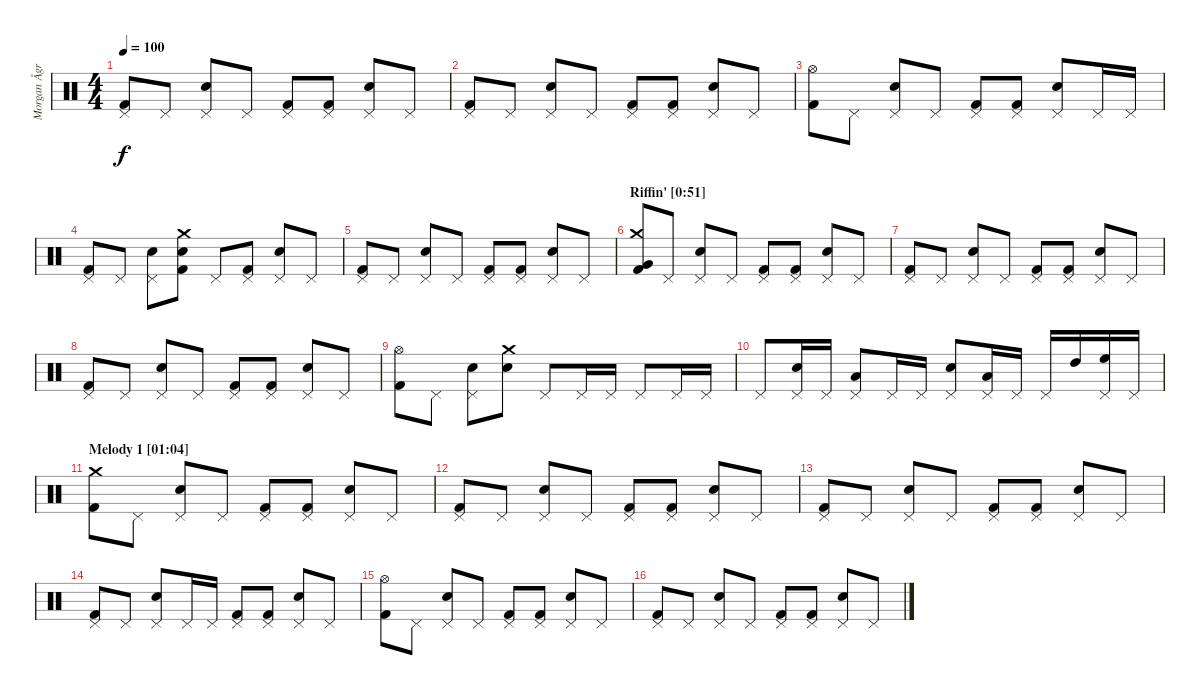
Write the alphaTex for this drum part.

\track ("Morgan Ågren" "Morgan Ågr") {instrument percussion}
\staff {score}
\articulation defaults
\ts (4 4)
\tempo 100
\clef neutral
\ks c
("Pedal Hi-Hat (hit)" "Kick (hit) 2").8{dy f} "Pedal Hi-Hat (hit)".8 ("Pedal Hi-Hat (hit)" "Electric Snare (hit)").8 "Pedal Hi-Hat (hit)".8 ("Pedal Hi-Hat (hit)" "Kick (hit) 2").8 ("Pedal Hi-Hat (hit)" "Kick (hit) 2").8 ("Pedal Hi-Hat (hit)" "Electric Snare (hit)").8 "Pedal Hi-Hat (hit)".8 |
("Pedal Hi-Hat (hit)" "Kick (hit) 2").8 "Pedal Hi-Hat (hit)".8 ("Pedal Hi-Hat (hit)" "Electric Snare (hit)").8 "Pedal Hi-Hat (hit)".8 ("Pedal Hi-Hat (hit)" "Kick (hit) 2").8 ("Pedal Hi-Hat (hit)" "Kick (hit) 2").8 ("Pedal Hi-Hat (hit)" "Electric Snare (hit)").8 "Pedal Hi-Hat (hit)".8 |
("Hi-Hat (open)" "Kick (hit) 2").8 "Pedal Hi-Hat (hit)".8 ("Pedal Hi-Hat (hit)" "Electric Snare (hit)").8 "Pedal Hi-Hat (hit)".8 ("Pedal Hi-Hat (hit)" "Kick (hit) 2").8 ("Pedal Hi-Hat (hit)" "Kick (hit) 2").8 ("Pedal Hi-Hat (hit)" "Electric Snare (hit)").8 "Pedal Hi-Hat (hit)".16 "Pedal Hi-Hat (hit)".16 |
("Pedal Hi-Hat (hit)" "Kick (hit) 2").8 "Pedal Hi-Hat (hit)".8 ("Pedal Hi-Hat (hit)" "Electric Snare (hit)").8 ("Crash medium (hit)" "Electric Snare (hit)" "Kick (hit) 2").8 "Pedal Hi-Hat (hit)".8 ("Pedal Hi-Hat (hit)" "Kick (hit) 2").8 ("Pedal Hi-Hat (hit)" "Electric Snare (hit)").8 "Pedal Hi-Hat (hit)".8 |
("Pedal Hi-Hat (hit)" "Kick (hit) 2").8 "Pedal Hi-Hat (hit)".8 ("Pedal Hi-Hat (hit)" "Electric Snare (hit)").8 "Pedal Hi-Hat (hit)".8 ("Pedal Hi-Hat (hit)" "Kick (hit) 2").8 ("Pedal Hi-Hat (hit)" "Kick (hit) 2").8 ("Pedal Hi-Hat (hit)" "Electric Snare (hit)").8 "Pedal Hi-Hat (hit)".8 |
\section ("" "Riffin' [0:51]")
("Crash medium (hit)" "Very Low Tom (hit)" "Kick (hit) 2").8 "Pedal Hi-Hat (hit)".8 ("Pedal Hi-Hat (hit)" "Electric Snare (hit)").8 "Pedal Hi-Hat (hit)".8 ("Pedal Hi-Hat (hit)" "Kick (hit) 2").8 ("Pedal Hi-Hat (hit)" "Kick (hit) 2").8 ("Pedal Hi-Hat (hit)" "Electric Snare (hit)").8 "Pedal Hi-Hat (hit)".8 |
("Pedal Hi-Hat (hit)" "Kick (hit) 2").8 "Pedal Hi-Hat (hit)".8 ("Pedal Hi-Hat (hit)" "Electric Snare (hit)").8 "Pedal Hi-Hat (hit)".8 ("Pedal Hi-Hat (hit)" "Kick (hit) 2").8 ("Pedal Hi-Hat (hit)" "Kick (hit) 2").8 ("Pedal Hi-Hat (hit)" "Electric Snare (hit)").8 "Pedal Hi-Hat (hit)".8 |
("Pedal Hi-Hat (hit)" "Kick (hit) 2").8 "Pedal Hi-Hat (hit)".8 ("Pedal Hi-Hat (hit)" "Electric Snare (hit)").8 "Pedal Hi-Hat (hit)".8 ("Pedal Hi-Hat (hit)" "Kick (hit) 2").8 ("Pedal Hi-Hat (hit)" "Kick (hit) 2").8 ("Pedal Hi-Hat (hit)" "Electric Snare (hit)").8 "Pedal Hi-Hat (hit)".8 |
("Hi-Hat (open)" "Kick (hit) 2").8 "Pedal Hi-Hat (hit)".8 ("Pedal Hi-Hat (hit)" "Electric Snare (hit)").8 ("Crash medium (hit)" "Electric Snare (hit)").8 "Pedal Hi-Hat (hit)".8 "Pedal Hi-Hat (hit)".16 "Pedal Hi-Hat (hit)".16 "Pedal Hi-Hat (hit)".8 "Pedal Hi-Hat (hit)".16 "Pedal Hi-Hat (hit)".16 |
"Pedal Hi-Hat (hit)".8 ("Pedal Hi-Hat (hit)" "Electric Snare (hit)").16 "Pedal Hi-Hat (hit)".16 ("Pedal Hi-Hat (hit)" "Low Tom (hit)").8 "Pedal Hi-Hat (hit)".16 "Pedal Hi-Hat (hit)".16 ("Pedal Hi-Hat (hit)" "Electric Snare (hit)").8 ("Pedal Hi-Hat (hit)" "Low Tom (hit)").16 "Pedal Hi-Hat (hit)".16 "Pedal Hi-Hat (hit)".16 "High Tom (hit)".16 ("Pedal Hi-Hat (hit)" "High Floor Tom (hit)").16 "Pedal Hi-Hat (hit)".16 |
\section ("" "Melody 1 [01:04]")
("Crash medium (hit)" "Kick (hit) 2").8 "Pedal Hi-Hat (hit)".8 ("Pedal Hi-Hat (hit)" "Electric Snare (hit)").8 "Pedal Hi-Hat (hit)".8 ("Pedal Hi-Hat (hit)" "Kick (hit) 2").8 ("Pedal Hi-Hat (hit)" "Kick (hit) 2").8 ("Pedal Hi-Hat (hit)" "Electric Snare (hit)").8 "Pedal Hi-Hat (hit)".8 |
("Pedal Hi-Hat (hit)" "Kick (hit) 2").8 "Pedal Hi-Hat (hit)".8 ("Pedal Hi-Hat (hit)" "Electric Snare (hit)").8 "Pedal Hi-Hat (hit)".8 ("Pedal Hi-Hat (hit)" "Kick (hit) 2").8 ("Pedal Hi-Hat (hit)" "Kick (hit) 2").8 ("Pedal Hi-Hat (hit)" "Electric Snare (hit)").8 "Pedal Hi-Hat (hit)".8 |
("Pedal Hi-Hat (hit)" "Kick (hit) 2").8 "Pedal Hi-Hat (hit)".8 ("Pedal Hi-Hat (hit)" "Electric Snare (hit)").8 "Pedal Hi-Hat (hit)".8 ("Pedal Hi-Hat (hit)" "Kick (hit) 2").8 ("Pedal Hi-Hat (hit)" "Kick (hit) 2").8 ("Pedal Hi-Hat (hit)" "Electric Snare (hit)").8 "Pedal Hi-Hat (hit)".8 |
("Pedal Hi-Hat (hit)" "Kick (hit) 2").8 "Pedal Hi-Hat (hit)".8 ("Pedal Hi-Hat (hit)" "Electric Snare (hit)").8 "Pedal Hi-Hat (hit)".16 "Pedal Hi-Hat (hit)".16 ("Pedal Hi-Hat (hit)" "Kick (hit) 2").8 ("Pedal Hi-Hat (hit)" "Kick (hit) 2").8 ("Pedal Hi-Hat (hit)" "Electric Snare (hit)").8 "Pedal Hi-Hat (hit)".8 |
("Hi-Hat (open)" "Kick (hit) 2").8 "Pedal Hi-Hat (hit)".8 ("Pedal Hi-Hat (hit)" "Electric Snare (hit)").8 "Pedal Hi-Hat (hit)".8 ("Pedal Hi-Hat (hit)" "Kick (hit) 2").8 ("Pedal Hi-Hat (hit)" "Kick (hit) 2").8 ("Pedal Hi-Hat (hit)" "Electric Snare (hit)").8 "Pedal Hi-Hat (hit)".8 |
("Pedal Hi-Hat (hit)" "Kick (hit) 2").8 "Pedal Hi-Hat (hit)".8 ("Pedal Hi-Hat (hit)" "Electric Snare (hit)").8 "Pedal Hi-Hat (hit)".8 ("Pedal Hi-Hat (hit)" "Kick (hit) 2").8 ("Pedal Hi-Hat (hit)" "Kick (hit) 2").8 ("Pedal Hi-Hat (hit)" "Electric Snare (hit)").8 "Pedal Hi-Hat (hit)".8
